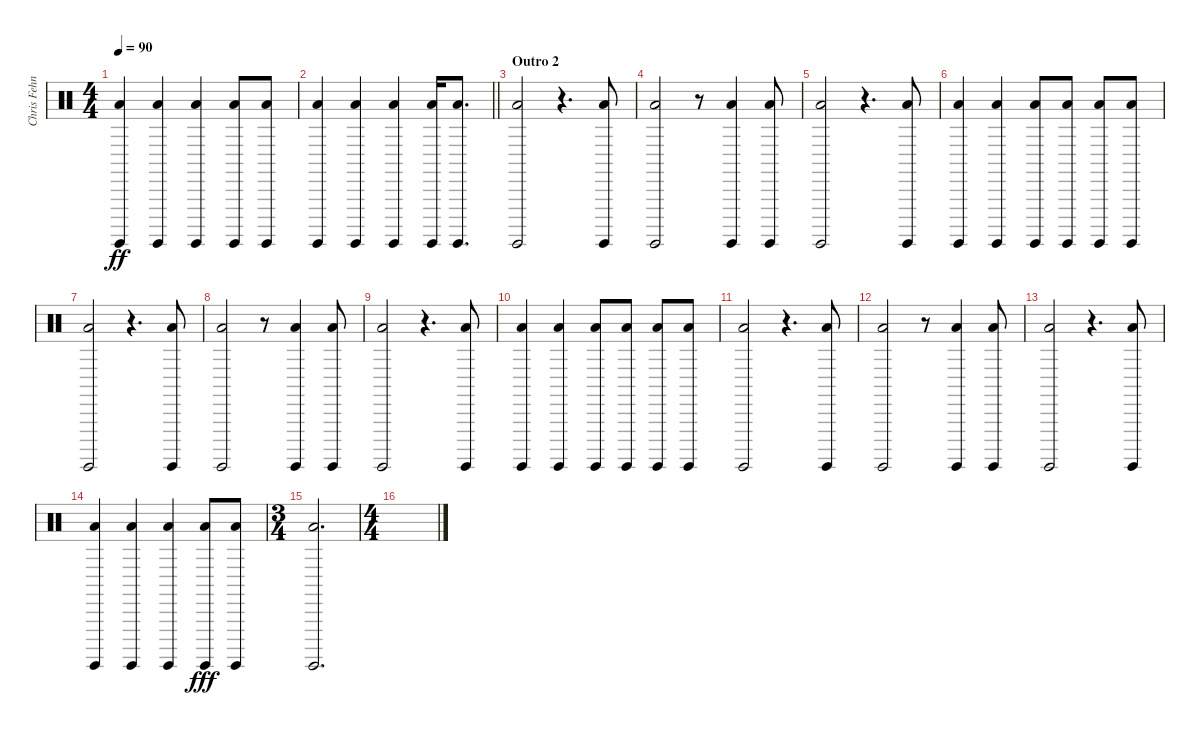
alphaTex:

\track ("Chris Fehn" "Chris Fehn") {instrument percussion}
\staff {score}
\articulation defaults
\ts (4 4)
\tempo 90
\clef neutral
\ks c
("Surdo (hit)" "Low Floor Tom (hit)").4{dy ff} ("Surdo (hit)" "Low Floor Tom (hit)").4 ("Surdo (hit)" "Low Floor Tom (hit)").4 ("Surdo (hit)" "Low Floor Tom (hit)").8 ("Surdo (hit)" "Low Floor Tom (hit)").8 |
\barLineRight lightlight
("Surdo (hit)" "Low Floor Tom (hit)").4 ("Surdo (hit)" "Low Floor Tom (hit)").4 ("Surdo (hit)" "Low Floor Tom (hit)").4 ("Surdo (hit)" "Low Floor Tom (hit)").16 ("Surdo (hit)" "Low Floor Tom (hit)").8{d} |
\section ("" "Outro 2")
("Surdo (hit)" "Low Floor Tom (hit)").2 r.4{d} ("Surdo (hit)" "Low Floor Tom (hit)").8 |
("Surdo (hit)" "Low Floor Tom (hit)").2 r.8 ("Surdo (hit)" "Low Floor Tom (hit)").4 ("Surdo (hit)" "Low Floor Tom (hit)").8 |
("Surdo (hit)" "Low Floor Tom (hit)").2 r.4{d} ("Surdo (hit)" "Low Floor Tom (hit)").8 |
("Surdo (hit)" "Low Floor Tom (hit)").4 ("Surdo (hit)" "Low Floor Tom (hit)").4 ("Surdo (hit)" "Low Floor Tom (hit)").8 ("Surdo (hit)" "Low Floor Tom (hit)").8 ("Surdo (hit)" "Low Floor Tom (hit)").8 ("Surdo (hit)" "Low Floor Tom (hit)").8 |
("Surdo (hit)" "Low Floor Tom (hit)").2 r.4{d} ("Surdo (hit)" "Low Floor Tom (hit)").8 |
("Surdo (hit)" "Low Floor Tom (hit)").2 r.8 ("Surdo (hit)" "Low Floor Tom (hit)").4 ("Surdo (hit)" "Low Floor Tom (hit)").8 |
("Surdo (hit)" "Low Floor Tom (hit)").2 r.4{d} ("Surdo (hit)" "Low Floor Tom (hit)").8 |
("Surdo (hit)" "Low Floor Tom (hit)").4 ("Surdo (hit)" "Low Floor Tom (hit)").4 ("Surdo (hit)" "Low Floor Tom (hit)").8 ("Surdo (hit)" "Low Floor Tom (hit)").8 ("Surdo (hit)" "Low Floor Tom (hit)").8 ("Surdo (hit)" "Low Floor Tom (hit)").8 |
("Surdo (hit)" "Low Floor Tom (hit)").2 r.4{d} ("Surdo (hit)" "Low Floor Tom (hit)").8 |
("Surdo (hit)" "Low Floor Tom (hit)").2 r.8 ("Surdo (hit)" "Low Floor Tom (hit)").4 ("Surdo (hit)" "Low Floor Tom (hit)").8 |
("Surdo (hit)" "Low Floor Tom (hit)").2 r.4{d} ("Surdo (hit)" "Low Floor Tom (hit)").8 |
("Surdo (hit)" "Low Floor Tom (hit)").4 ("Surdo (hit)" "Low Floor Tom (hit)").4 ("Surdo (hit)" "Low Floor Tom (hit)").4 ("Surdo (hit)" "Low Floor Tom (hit)").8{dy fff} ("Surdo (hit)" "Low Floor Tom (hit)").8 |
\ts (3 4)
("Surdo (hit)" "Low Floor Tom (hit)").2{d} |
\ts (4 4)
